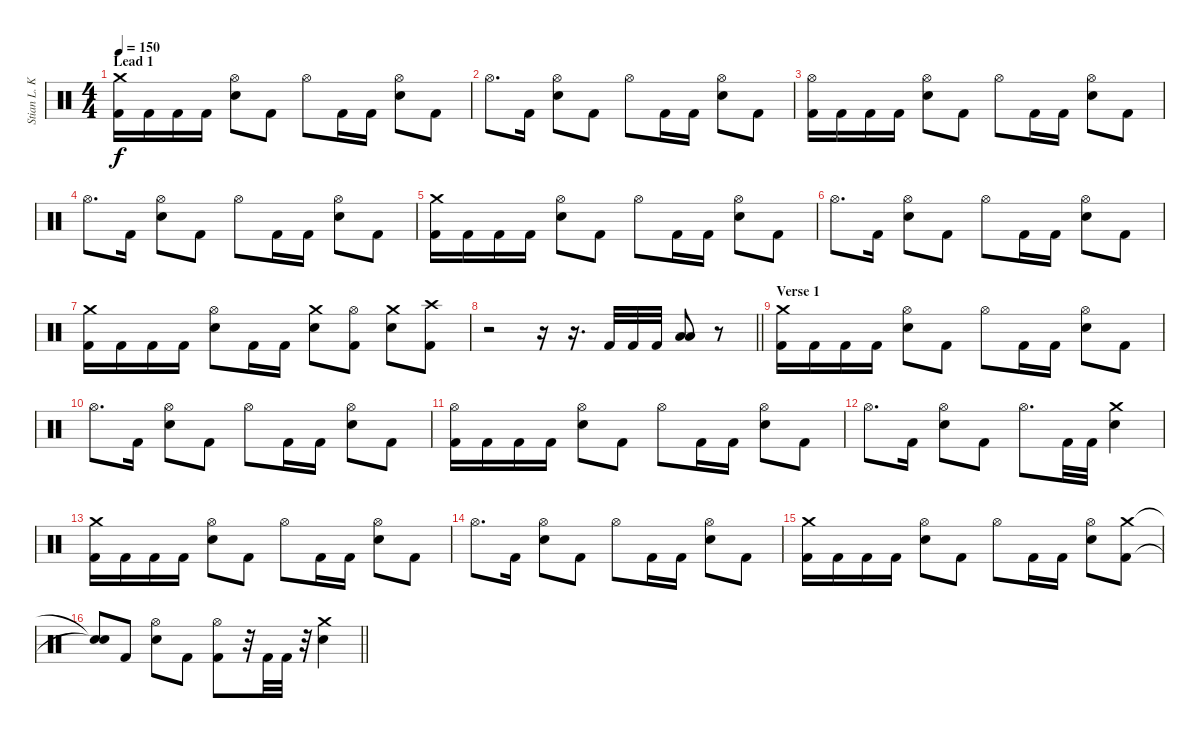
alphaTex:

\track ("Stian L. Kristoffersen" "Stian L. K") {instrument percussion}
\staff {score}
\articulation defaults
\ts (4 4)
\section ("" "Lead 1")
\tempo 150
\clef neutral
\ks c
("Crash medium (hit)" "Kick (hit) 2").16{dy f} "Kick (hit) 2".16 "Kick (hit) 2".16 "Kick (hit) 2".16 ("Hi-Hat (open)" "Electric Snare (hit)").8 "Kick (hit) 2".8 "Hi-Hat (open)".8 "Kick (hit) 2".16 "Kick (hit) 2".16 ("Hi-Hat (open)" "Electric Snare (hit)").8 "Kick (hit) 2".8 |
"Hi-Hat (open)".8{d} "Kick (hit) 2".16 ("Hi-Hat (open)" "Electric Snare (hit)").8 "Kick (hit) 2".8 "Hi-Hat (open)".8 "Kick (hit) 2".16 "Kick (hit) 2".16 ("Hi-Hat (open)" "Electric Snare (hit)").8 "Kick (hit) 2".8 |
("Hi-Hat (open)" "Kick (hit) 2").16 "Kick (hit) 2".16 "Kick (hit) 2".16 "Kick (hit) 2".16 ("Hi-Hat (open)" "Electric Snare (hit)").8 "Kick (hit) 2".8 "Hi-Hat (open)".8 "Kick (hit) 2".16 "Kick (hit) 2".16 ("Hi-Hat (open)" "Electric Snare (hit)").8 "Kick (hit) 2".8 |
"Hi-Hat (open)".8{d} "Kick (hit) 2".16 ("Hi-Hat (open)" "Electric Snare (hit)").8 "Kick (hit) 2".8 "Hi-Hat (open)".8 "Kick (hit) 2".16 "Kick (hit) 2".16 ("Hi-Hat (open)" "Electric Snare (hit)").8 "Kick (hit) 2".8 |
("Crash medium (hit)" "Kick (hit) 2").16 "Kick (hit) 2".16 "Kick (hit) 2".16 "Kick (hit) 2".16 ("Hi-Hat (open)" "Electric Snare (hit)").8 "Kick (hit) 2".8 "Hi-Hat (open)".8 "Kick (hit) 2".16 "Kick (hit) 2".16 ("Hi-Hat (open)" "Electric Snare (hit)").8 "Kick (hit) 2".8 |
"Hi-Hat (open)".8{d} "Kick (hit) 2".16 ("Hi-Hat (open)" "Electric Snare (hit)").8 "Kick (hit) 2".8 "Hi-Hat (open)".8 "Kick (hit) 2".16 "Kick (hit) 2".16 ("Hi-Hat (open)" "Electric Snare (hit)").8 "Kick (hit) 2".8 |
("Crash medium (hit)" "Kick (hit) 2").16 "Kick (hit) 2".16 "Kick (hit) 2".16 "Kick (hit) 2".16 ("Hi-Hat (open)" "Electric Snare (hit)").8 "Kick (hit) 2".16 "Kick (hit) 2".16 ("Crash medium (hit)" "Electric Snare (hit)").8 ("Hi-Hat (open)" "Kick (hit) 2").8 ("Crash medium (hit)" "Electric Snare (hit)").8 ("Crash high (hit)" "Kick (hit) 2").8 |
\barLineRight lightlight
r.2 r.16 r.16{d} "Kick (hit) 2".32 "Kick (hit) 2".32 "Kick (hit) 2".32 ("Low Tom (hit)" "Low Tom (hit)").8 r.8 |
\section ("" "Verse 1")
("Crash medium (hit)" "Kick (hit) 2").16 "Kick (hit) 2".16 "Kick (hit) 2".16 "Kick (hit) 2".16 ("Hi-Hat (open)" "Electric Snare (hit)").8 "Kick (hit) 2".8 "Hi-Hat (open)".8 "Kick (hit) 2".16 "Kick (hit) 2".16 ("Hi-Hat (open)" "Electric Snare (hit)").8 "Kick (hit) 2".8 |
"Hi-Hat (open)".8{d} "Kick (hit) 2".16 ("Hi-Hat (open)" "Electric Snare (hit)").8 "Kick (hit) 2".8 "Hi-Hat (open)".8 "Kick (hit) 2".16 "Kick (hit) 2".16 ("Hi-Hat (open)" "Electric Snare (hit)").8 "Kick (hit) 2".8 |
("Hi-Hat (open)" "Kick (hit) 2").16 "Kick (hit) 2".16 "Kick (hit) 2".16 "Kick (hit) 2".16 ("Hi-Hat (open)" "Electric Snare (hit)").8 "Kick (hit) 2".8 "Hi-Hat (open)".8 "Kick (hit) 2".16 "Kick (hit) 2".16 ("Hi-Hat (open)" "Electric Snare (hit)").8 "Kick (hit) 2".8 |
"Hi-Hat (open)".8{d} "Kick (hit) 2".16 ("Hi-Hat (open)" "Electric Snare (hit)").8 "Kick (hit) 2".8 "Hi-Hat (open)".8{d} "Kick (hit) 2".32 "Kick (hit) 2".32 ("Crash medium (hit)" "Electric Snare (hit)").4 |
("Crash medium (hit)" "Kick (hit) 2").16 "Kick (hit) 2".16 "Kick (hit) 2".16 "Kick (hit) 2".16 ("Hi-Hat (open)" "Electric Snare (hit)").8 "Kick (hit) 2".8 "Hi-Hat (open)".8 "Kick (hit) 2".16 "Kick (hit) 2".16 ("Hi-Hat (open)" "Electric Snare (hit)").8 "Kick (hit) 2".8 |
"Hi-Hat (open)".8{d} "Kick (hit) 2".16 ("Hi-Hat (open)" "Electric Snare (hit)").8 "Kick (hit) 2".8 "Hi-Hat (open)".8 "Kick (hit) 2".16 "Kick (hit) 2".16 ("Hi-Hat (open)" "Electric Snare (hit)").8 "Kick (hit) 2".8 |
("Crash medium (hit)" "Kick (hit) 2").16 "Kick (hit) 2".16 "Kick (hit) 2".16 "Kick (hit) 2".16 ("Hi-Hat (open)" "Electric Snare (hit)").8 "Kick (hit) 2".8 "Hi-Hat (open)".8 "Kick (hit) 2".16 "Kick (hit) 2".16 ("Hi-Hat (open)" "Electric Snare (hit)").8 ("Crash medium (hit)" "Kick (hit) 2").8 |
\barLineRight lightlight
("Snare (hit)"{t} "Snare (hit)"{t}).8 "Kick (hit) 2".8 ("Hi-Hat (open)" "Electric Snare (hit)").8 "Kick (hit) 2".8 ("Hi-Hat (open)" "Kick (hit) 2").8 r.32 "Kick (hit) 2".32 "Kick (hit) 2".32 r.32 ("Crash medium (hit)" "Electric Snare (hit)").4
